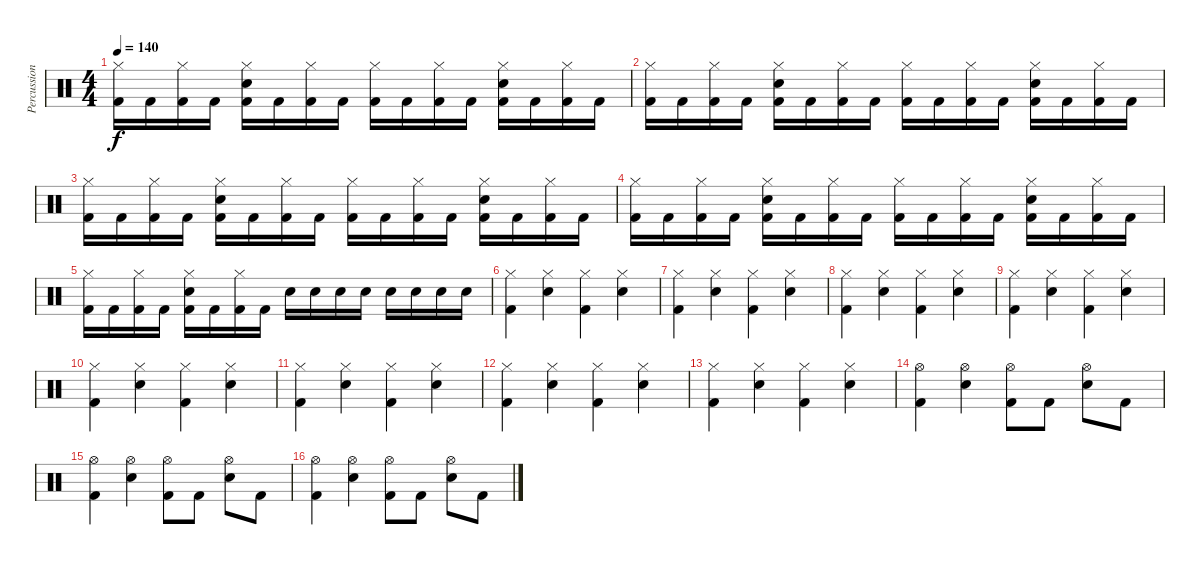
\track ("Percussion" "Percussion") {instrument percussion}
\staff {score}
\articulation defaults
\ts (4 4)
\tempo 140
\clef neutral
\ks c
("Hi-Hat (closed)" "Kick (hit) 2").16{dy f} "Kick (hit) 2".16 ("Hi-Hat (closed)" "Kick (hit) 2").16 "Kick (hit) 2".16 ("Hi-Hat (closed)" "Electric Snare (hit)" "Kick (hit) 2").16 "Kick (hit) 2".16 ("Hi-Hat (closed)" "Kick (hit) 2").16 "Kick (hit) 2".16 ("Hi-Hat (closed)" "Kick (hit) 2").16 "Kick (hit) 2".16 ("Hi-Hat (closed)" "Kick (hit) 2").16 "Kick (hit) 2".16 ("Hi-Hat (closed)" "Electric Snare (hit)" "Kick (hit) 2").16 "Kick (hit) 2".16 ("Hi-Hat (closed)" "Kick (hit) 2").16 "Kick (hit) 2".16 |
("Hi-Hat (closed)" "Kick (hit) 2").16 "Kick (hit) 2".16 ("Hi-Hat (closed)" "Kick (hit) 2").16 "Kick (hit) 2".16 ("Hi-Hat (closed)" "Electric Snare (hit)" "Kick (hit) 2").16 "Kick (hit) 2".16 ("Hi-Hat (closed)" "Kick (hit) 2").16 "Kick (hit) 2".16 ("Hi-Hat (closed)" "Kick (hit) 2").16 "Kick (hit) 2".16 ("Hi-Hat (closed)" "Kick (hit) 2").16 "Kick (hit) 2".16 ("Hi-Hat (closed)" "Electric Snare (hit)" "Kick (hit) 2").16 "Kick (hit) 2".16 ("Hi-Hat (closed)" "Kick (hit) 2").16 "Kick (hit) 2".16 |
("Hi-Hat (closed)" "Kick (hit) 2").16 "Kick (hit) 2".16 ("Hi-Hat (closed)" "Kick (hit) 2").16 "Kick (hit) 2".16 ("Hi-Hat (closed)" "Electric Snare (hit)" "Kick (hit) 2").16 "Kick (hit) 2".16 ("Hi-Hat (closed)" "Kick (hit) 2").16 "Kick (hit) 2".16 ("Hi-Hat (closed)" "Kick (hit) 2").16 "Kick (hit) 2".16 ("Hi-Hat (closed)" "Kick (hit) 2").16 "Kick (hit) 2".16 ("Hi-Hat (closed)" "Electric Snare (hit)" "Kick (hit) 2").16 "Kick (hit) 2".16 ("Hi-Hat (closed)" "Kick (hit) 2").16 "Kick (hit) 2".16 |
("Hi-Hat (closed)" "Kick (hit) 2").16 "Kick (hit) 2".16 ("Hi-Hat (closed)" "Kick (hit) 2").16 "Kick (hit) 2".16 ("Hi-Hat (closed)" "Electric Snare (hit)" "Kick (hit) 2").16 "Kick (hit) 2".16 ("Hi-Hat (closed)" "Kick (hit) 2").16 "Kick (hit) 2".16 ("Hi-Hat (closed)" "Kick (hit) 2").16 "Kick (hit) 2".16 ("Hi-Hat (closed)" "Kick (hit) 2").16 "Kick (hit) 2".16 ("Hi-Hat (closed)" "Electric Snare (hit)" "Kick (hit) 2").16 "Kick (hit) 2".16 ("Hi-Hat (closed)" "Kick (hit) 2").16 "Kick (hit) 2".16 |
("Hi-Hat (closed)" "Kick (hit) 2").16 "Kick (hit) 2".16 ("Hi-Hat (closed)" "Kick (hit) 2").16 "Kick (hit) 2".16 ("Hi-Hat (closed)" "Electric Snare (hit)" "Kick (hit) 2").16 "Kick (hit) 2".16 ("Hi-Hat (closed)" "Kick (hit) 2").16 "Kick (hit) 2".16 "Electric Snare (hit)".16 "Electric Snare (hit)".16 "Electric Snare (hit)".16 "Electric Snare (hit)".16 "Electric Snare (hit)".16 "Electric Snare (hit)".16 "Electric Snare (hit)".16 "Electric Snare (hit)".16 |
("Hi-Hat (closed)" "Kick (hit) 2").4 ("Hi-Hat (closed)" "Electric Snare (hit)").4 ("Hi-Hat (closed)" "Kick (hit) 2").4 ("Hi-Hat (closed)" "Electric Snare (hit)").4 |
("Hi-Hat (closed)" "Kick (hit) 2").4 ("Hi-Hat (closed)" "Electric Snare (hit)").4 ("Hi-Hat (closed)" "Kick (hit) 2").4 ("Hi-Hat (closed)" "Electric Snare (hit)").4 |
("Hi-Hat (closed)" "Kick (hit) 2").4 ("Hi-Hat (closed)" "Electric Snare (hit)").4 ("Hi-Hat (closed)" "Kick (hit) 2").4 ("Hi-Hat (closed)" "Electric Snare (hit)").4 |
("Hi-Hat (closed)" "Kick (hit) 2").4 ("Hi-Hat (closed)" "Electric Snare (hit)").4 ("Hi-Hat (closed)" "Kick (hit) 2").4 ("Hi-Hat (closed)" "Electric Snare (hit)").4 |
("Hi-Hat (closed)" "Kick (hit) 2").4 ("Hi-Hat (closed)" "Electric Snare (hit)").4 ("Hi-Hat (closed)" "Kick (hit) 2").4 ("Hi-Hat (closed)" "Electric Snare (hit)").4 |
("Hi-Hat (closed)" "Kick (hit) 2").4 ("Hi-Hat (closed)" "Electric Snare (hit)").4 ("Hi-Hat (closed)" "Kick (hit) 2").4 ("Hi-Hat (closed)" "Electric Snare (hit)").4 |
("Hi-Hat (closed)" "Kick (hit) 2").4 ("Hi-Hat (closed)" "Electric Snare (hit)").4 ("Hi-Hat (closed)" "Kick (hit) 2").4 ("Hi-Hat (closed)" "Electric Snare (hit)").4 |
("Hi-Hat (closed)" "Kick (hit) 2").4 ("Hi-Hat (closed)" "Electric Snare (hit)").4 ("Hi-Hat (closed)" "Kick (hit) 2").4 ("Hi-Hat (closed)" "Electric Snare (hit)").4 |
("Hi-Hat (open)" "Kick (hit) 2").4 ("Hi-Hat (open)" "Electric Snare (hit)").4 ("Hi-Hat (open)" "Kick (hit) 2").8 "Kick (hit) 2".8 ("Hi-Hat (open)" "Electric Snare (hit)").8 "Kick (hit) 2".8 |
("Hi-Hat (open)" "Kick (hit) 2").4 ("Hi-Hat (open)" "Electric Snare (hit)").4 ("Hi-Hat (open)" "Kick (hit) 2").8 "Kick (hit) 2".8 ("Hi-Hat (open)" "Electric Snare (hit)").8 "Kick (hit) 2".8 |
("Hi-Hat (open)" "Kick (hit) 2").4 ("Hi-Hat (open)" "Electric Snare (hit)").4 ("Hi-Hat (open)" "Kick (hit) 2").8 "Kick (hit) 2".8 ("Hi-Hat (open)" "Electric Snare (hit)").8 "Kick (hit) 2".8
